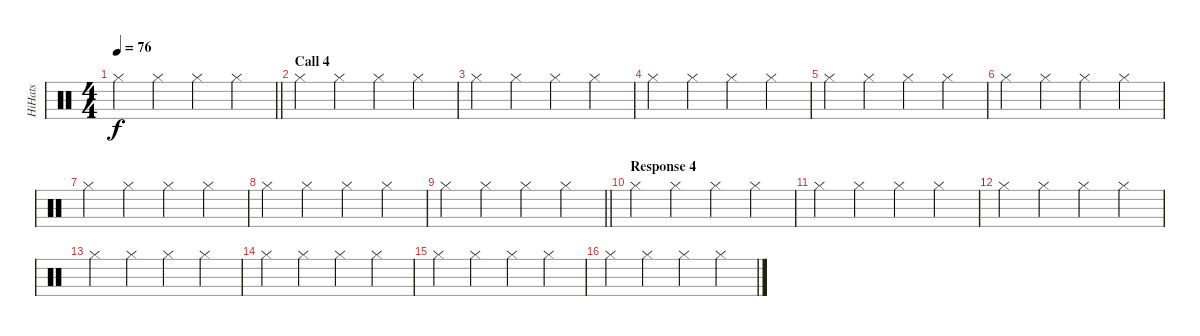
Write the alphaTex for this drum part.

\track ("HiHats" "HiHats") {instrument percussion}
\staff {score}
\articulation defaults
\ts (4 4)
\tempo 76
\clef neutral
\barLineRight lightlight
\ks c "Hi-Hat (closed)".4{dy f} "Hi-Hat (closed)".4 "Hi-Hat (closed)".4 "Hi-Hat (closed)".4
|
\section ("" "Call 4")
"Hi-Hat (closed)".4{volume 9} "Hi-Hat (closed)".4 "Hi-Hat (closed)".4 "Hi-Hat (closed)".4 |
"Hi-Hat (closed)".4 "Hi-Hat (closed)".4 "Hi-Hat (closed)".4 "Hi-Hat (closed)".4 |
"Hi-Hat (closed)".4 "Hi-Hat (closed)".4 "Hi-Hat (closed)".4 "Hi-Hat (closed)".4 |
"Hi-Hat (closed)".4 "Hi-Hat (closed)".4 "Hi-Hat (closed)".4 "Hi-Hat (closed)".4 |
"Hi-Hat (closed)".4 "Hi-Hat (closed)".4 "Hi-Hat (closed)".4 "Hi-Hat (closed)".4 |
"Hi-Hat (closed)".4 "Hi-Hat (closed)".4 "Hi-Hat (closed)".4 "Hi-Hat (closed)".4 |
"Hi-Hat (closed)".4 "Hi-Hat (closed)".4 "Hi-Hat (closed)".4 "Hi-Hat (closed)".4 |
\barLineRight lightlight "Hi-Hat (closed)".4 "Hi-Hat (closed)".4 "Hi-Hat (closed)".4 "Hi-Hat (closed)".4
|
\section ("" "Response 4")
"Hi-Hat (closed)".4{volume 9} "Hi-Hat (closed)".4 "Hi-Hat (closed)".4 "Hi-Hat (closed)".4 |
"Hi-Hat (closed)".4 "Hi-Hat (closed)".4 "Hi-Hat (closed)".4 "Hi-Hat (closed)".4 |
"Hi-Hat (closed)".4 "Hi-Hat (closed)".4 "Hi-Hat (closed)".4 "Hi-Hat (closed)".4 |
"Hi-Hat (closed)".4 "Hi-Hat (closed)".4 "Hi-Hat (closed)".4 "Hi-Hat (closed)".4 |
"Hi-Hat (closed)".4 "Hi-Hat (closed)".4 "Hi-Hat (closed)".4 "Hi-Hat (closed)".4 |
"Hi-Hat (closed)".4 "Hi-Hat (closed)".4 "Hi-Hat (closed)".4 "Hi-Hat (closed)".4 |
"Hi-Hat (closed)".4 "Hi-Hat (closed)".4 "Hi-Hat (closed)".4 "Hi-Hat (closed)".4
